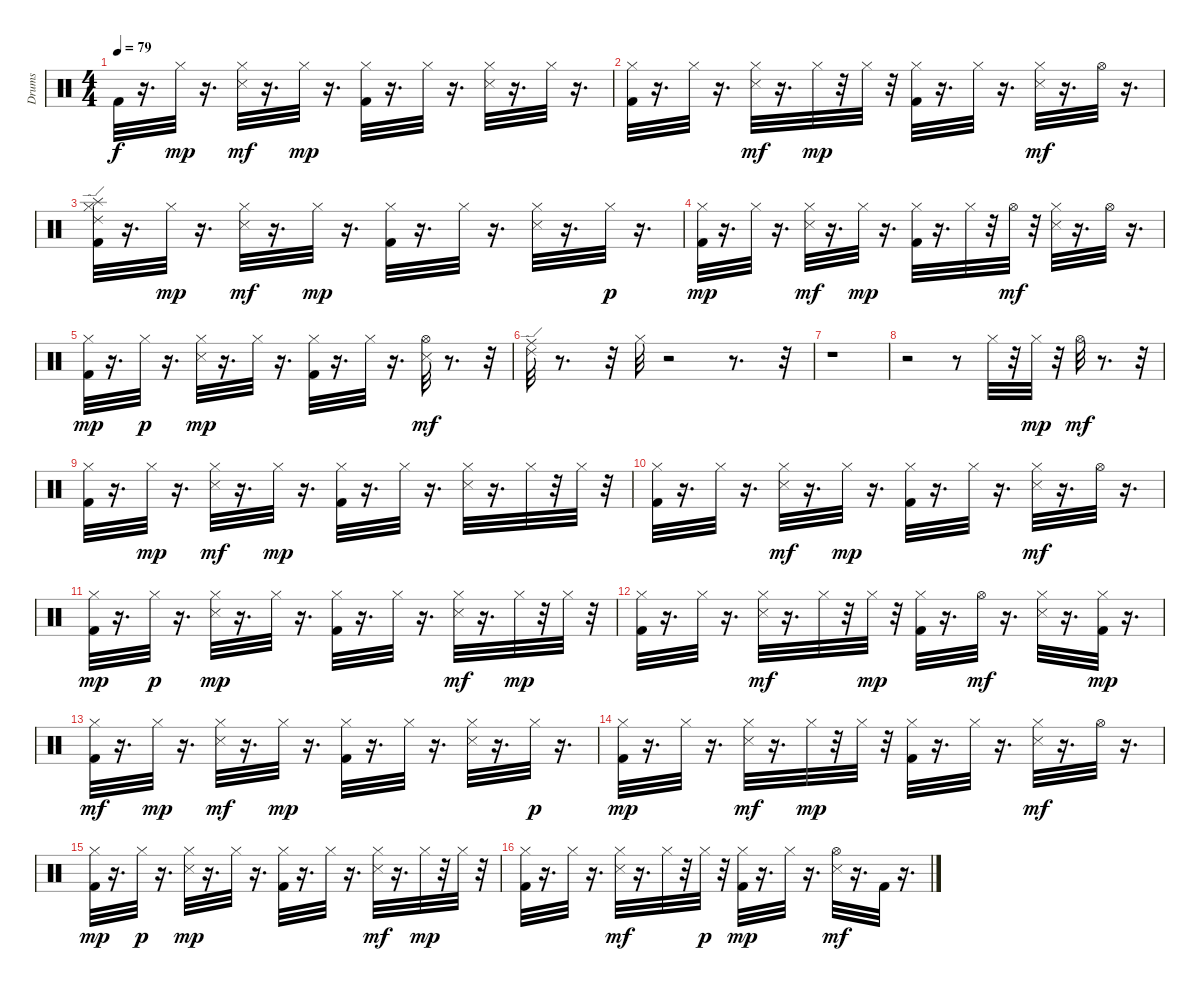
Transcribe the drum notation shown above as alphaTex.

\track ("Drums" "Drums") {instrument percussion}
\staff {score}
\articulation defaults
\ts (4 4)
\tempo 79
\clef neutral
\ks c "Kick (hit) 2".32{dy f}
r.16{d} "Hi-Hat (closed)".32{dy mp} r.16{d} ("Snare (side stick) 3" "Hi-Hat (closed)").32{dy mf} r.16{d} "Hi-Hat (closed)".32{dy mp} r.16{d} ("Kick (hit) 2" "Hi-Hat (closed)").32 r.16{d} "Hi-Hat (closed)".32 r.16{d} ("Snare (side stick) 3" "Hi-Hat (closed)").32 r.16{d} "Hi-Hat (closed)".32 r.16{d} |
("Kick (hit) 2" "Hi-Hat (closed)").32 r.16{d} "Hi-Hat (closed)".32 r.16{d} ("Snare (side stick) 3" "Hi-Hat (closed)").32{dy mf} r.16{d} "Hi-Hat (closed)".32{dy mp} r.32 "Hi-Hat (closed)".32 r.32 ("Kick (hit) 2" "Hi-Hat (closed)").32 r.16{d} "Hi-Hat (closed)".32 r.16{d} ("Snare (side stick) 3" "Hi-Hat (closed)").32{dy mf} r.16{d} "Hi-Hat (open)".32 r.16{d} |
("Kick (hit) 2" "Hi-Hat (closed)" "Splash (hit)" "Ride (edge) 2").32 r.16{d} "Hi-Hat (closed)".32{dy mp} r.16{d} ("Snare (side stick) 3" "Hi-Hat (closed)").32{dy mf} r.16{d} "Hi-Hat (closed)".32{dy mp} r.16{d} ("Kick (hit) 2" "Hi-Hat (closed)").32 r.16{d} "Hi-Hat (closed)".32 r.16{d} ("Snare (side stick) 3" "Hi-Hat (closed)").32 r.16{d} "Hi-Hat (closed)".32{dy p} r.16{d} |
("Kick (hit) 2" "Hi-Hat (closed)").32{dy mp} r.16{d} "Hi-Hat (closed)".32 r.16{d} ("Snare (side stick) 3" "Hi-Hat (closed)").32{dy mf} r.16{d} "Hi-Hat (closed)".32{dy mp} r.16{d} ("Kick (hit) 2" "Hi-Hat (closed)").32 r.16{d} "Hi-Hat (closed)".32 r.32 "Hi-Hat (open)".32{dy mf} r.32 ("Snare (side stick) 3" "Hi-Hat (closed)").32 r.16{d} "Hi-Hat (open)".32 r.16{d} |
("Kick (hit) 2" "Hi-Hat (closed)").32{dy mp} r.16{d} "Hi-Hat (closed)".32{dy p} r.16{d} ("Snare (side stick) 3" "Hi-Hat (closed)").32{dy mp} r.16{d} "Hi-Hat (closed)".32 r.16{d} ("Kick (hit) 2" "Hi-Hat (closed)").32 r.16{d} "Hi-Hat (closed)".32 r.16{d} ("Snare (side stick) 3" "Hi-Hat (open)").32{dy mf} r.8{d} r.32 |
("Ride (edge) 2" "Ride (middle)").32 r.8{d} r.32 "Hi-Hat (closed)".32 r.2 r.8{d} r.32 |
r.1 |
r.2 r.8 "Hi-Hat (closed)".32 r.32 "Hi-Hat (closed)".32{dy mp} r.32 "Hi-Hat (open)".32{dy mf} r.8{d} r.32 |
("Kick (hit) 2" "Hi-Hat (closed)").32 r.16{d} "Hi-Hat (closed)".32{dy mp} r.16{d} ("Snare (side stick) 3" "Hi-Hat (closed)").32{dy mf} r.16{d} "Hi-Hat (closed)".32{dy mp} r.16{d} ("Kick (hit) 2" "Hi-Hat (closed)").32 r.16{d} "Hi-Hat (closed)".32 r.16{d} ("Snare (side stick) 3" "Hi-Hat (closed)").32 r.16{d} "Hi-Hat (closed)".32 r.32 "Hi-Hat (closed)".32 r.32 |
("Kick (hit) 2" "Hi-Hat (closed)").32 r.16{d} "Hi-Hat (closed)".32 r.16{d} ("Snare (side stick) 3" "Hi-Hat (closed)").32{dy mf} r.16{d} "Hi-Hat (closed)".32{dy mp} r.16{d} ("Kick (hit) 2" "Hi-Hat (closed)").32 r.16{d} "Hi-Hat (closed)".32 r.16{d} ("Snare (side stick) 3" "Hi-Hat (closed)").32{dy mf} r.16{d} "Hi-Hat (open)".32 r.16{d} |
("Kick (hit) 2" "Hi-Hat (closed)").32{dy mp} r.16{d} "Hi-Hat (closed)".32{dy p} r.16{d} ("Snare (side stick) 3" "Hi-Hat (closed)").32{dy mp} r.16{d} "Hi-Hat (closed)".32 r.16{d} ("Kick (hit) 2" "Hi-Hat (closed)").32 r.16{d} "Hi-Hat (closed)".32 r.16{d} ("Snare (side stick) 3" "Hi-Hat (closed)").32{dy mf} r.16{d} "Hi-Hat (closed)".32{dy mp} r.32 "Hi-Hat (closed)".32 r.32 |
("Kick (hit) 2" "Hi-Hat (closed)").32 r.16{d} "Hi-Hat (closed)".32 r.16{d} ("Snare (side stick) 3" "Hi-Hat (closed)").32{dy mf} r.16{d} "Hi-Hat (closed)".32 r.32 "Hi-Hat (closed)".32{dy mp} r.32 ("Kick (hit) 2" "Hi-Hat (closed)").32 r.16{d} "Hi-Hat (open)".32{dy mf} r.16{d} ("Snare (side stick) 3" "Hi-Hat (closed)").32 r.16{d} ("Kick (hit) 2" "Hi-Hat (closed)").32{dy mp} r.16{d} |
("Kick (hit) 2" "Hi-Hat (closed)").32{dy mf} r.16{d} "Hi-Hat (closed)".32{dy mp} r.16{d} ("Snare (side stick) 3" "Hi-Hat (closed)").32{dy mf} r.16{d} "Hi-Hat (closed)".32{dy mp} r.16{d} ("Kick (hit) 2" "Hi-Hat (closed)").32 r.16{d} "Hi-Hat (closed)".32 r.16{d} ("Snare (side stick) 3" "Hi-Hat (closed)").32 r.16{d} "Hi-Hat (closed)".32{dy p} r.16{d} |
("Kick (hit) 2" "Hi-Hat (closed)").32{dy mp} r.16{d} "Hi-Hat (closed)".32 r.16{d} ("Snare (side stick) 3" "Hi-Hat (closed)").32{dy mf} r.16{d} "Hi-Hat (closed)".32{dy mp} r.32 "Hi-Hat (closed)".32 r.32 ("Kick (hit) 2" "Hi-Hat (closed)").32 r.16{d} "Hi-Hat (closed)".32 r.16{d} ("Snare (side stick) 3" "Hi-Hat (closed)").32{dy mf} r.16{d} "Hi-Hat (open)".32 r.16{d} |
("Kick (hit) 2" "Hi-Hat (closed)").32{dy mp} r.16{d} "Hi-Hat (closed)".32{dy p} r.16{d} ("Snare (side stick) 3" "Hi-Hat (closed)").32{dy mp} r.16{d} "Hi-Hat (closed)".32 r.16{d} ("Kick (hit) 2" "Hi-Hat (closed)").32 r.16{d} "Hi-Hat (closed)".32 r.16{d} ("Snare (side stick) 3" "Hi-Hat (closed)").32{dy mf} r.16{d} "Hi-Hat (closed)".32{dy mp} r.32 "Hi-Hat (closed)".32 r.32 |
("Kick (hit) 2" "Hi-Hat (closed)").32 r.16{d} "Hi-Hat (closed)".32 r.16{d} ("Snare (side stick) 3" "Hi-Hat (closed)").32{dy mf} r.16{d} "Hi-Hat (closed)".32 r.32 "Hi-Hat (closed)".32{dy p} r.32 ("Kick (hit) 2" "Hi-Hat (closed)").32{dy mp} r.16{d} "Hi-Hat (closed)".32 r.16{d} ("Snare (side stick) 3" "Hi-Hat (open)").32{dy mf} r.16{d} "Kick (hit) 2".32 r.16{d}
